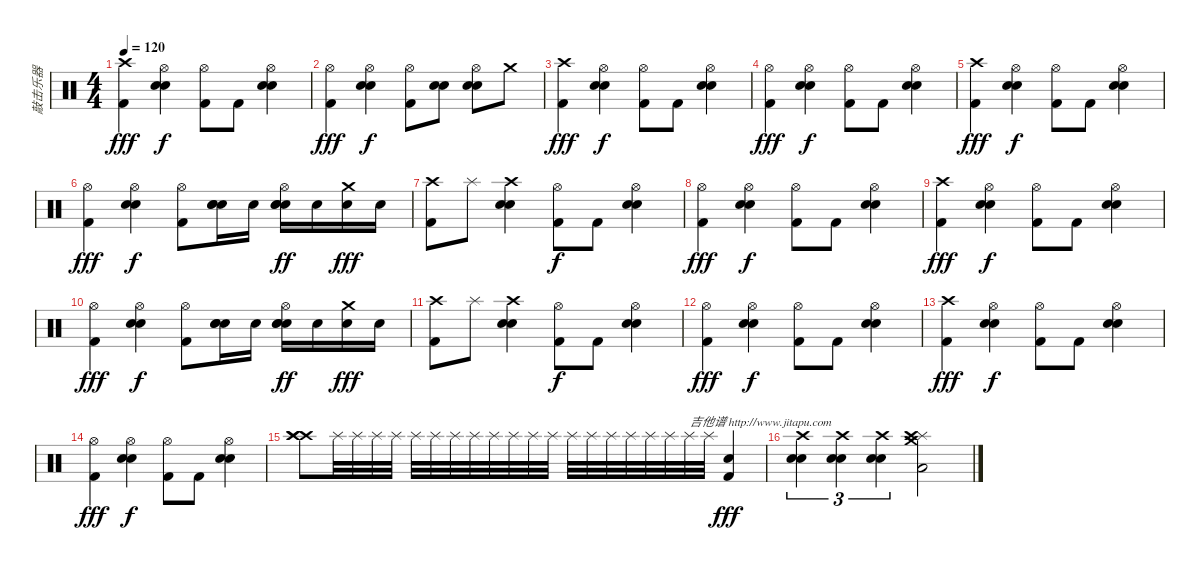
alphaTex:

\track ("敲击乐器" "敲击乐器") {instrument percussion}
\staff {score}
\articulation defaults
\ts (4 4)
\tempo 120
\clef neutral
\ks c
("Crash high (hit)" "Kick (hit) 2").4{dy fff} ("Hi-Hat (open)" "Electric Snare (hit)" "Metronome (bell)").4{dy f} ("Hi-Hat (open)" "Kick (hit) 2").8 "Kick (hit) 2".8 ("Hi-Hat (open)" "Electric Snare (hit)" "Metronome (bell)").4 |
("Hi-Hat (open)" "Kick (hit) 2").4{dy fff} ("Hi-Hat (open)" "Electric Snare (hit)" "Metronome (bell)").4{dy f} ("Hi-Hat (open)" "Kick (hit) 2").8 ("Electric Snare (hit)" "Metronome (bell)").8 ("Hi-Hat (open)" "Electric Snare (hit)" "Metronome (bell)").8 "Crash medium (hit)".8 |
("Crash high (hit)" "Kick (hit) 2").4{dy fff} ("Hi-Hat (open)" "Electric Snare (hit)" "Metronome (bell)").4{dy f} ("Hi-Hat (open)" "Kick (hit) 2").8 "Kick (hit) 2".8 ("Hi-Hat (open)" "Electric Snare (hit)" "Metronome (bell)").4 |
("Hi-Hat (open)" "Kick (hit) 2").4{dy fff} ("Hi-Hat (open)" "Electric Snare (hit)" "Metronome (bell)").4{dy f} ("Hi-Hat (open)" "Kick (hit) 2").8 "Kick (hit) 2".8 ("Hi-Hat (open)" "Electric Snare (hit)" "Metronome (bell)").4 |
("Crash high (hit)" "Kick (hit) 2").4{dy fff} ("Hi-Hat (open)" "Electric Snare (hit)" "Metronome (bell)").4{dy f} ("Hi-Hat (open)" "Kick (hit) 2").8 "Kick (hit) 2".8 ("Hi-Hat (open)" "Electric Snare (hit)" "Metronome (bell)").4 |
("Hi-Hat (open)" "Kick (hit) 2").4{dy fff} ("Hi-Hat (open)" "Electric Snare (hit)" "Metronome (bell)").4{dy f} ("Hi-Hat (open)" "Kick (hit) 2").8 ("Electric Snare (hit)" "Metronome (bell)" "Electric Snare (hit)").16 "Electric Snare (hit)".16 ("Hi-Hat (open)" "Electric Snare (hit)" "Metronome (bell)" "Electric Snare (hit)").16{dy ff} "Electric Snare (hit)".16 ("Crash medium (hit)" "Electric Snare (hit)").16{dy fff} "Electric Snare (hit)".16 |
("Crash high (hit)" "Kick (hit) 2").8 "Splash (hit)".8 ("Crash high (hit)" "Electric Snare (hit)" "Metronome (bell)").4 ("Hi-Hat (open)" "Kick (hit) 2").8{dy f} "Kick (hit) 2".8 ("Hi-Hat (open)" "Electric Snare (hit)" "Metronome (bell)").4 |
("Hi-Hat (open)" "Kick (hit) 2").4{dy fff} ("Hi-Hat (open)" "Electric Snare (hit)" "Metronome (bell)").4{dy f} ("Hi-Hat (open)" "Kick (hit) 2").8 "Kick (hit) 2".8 ("Hi-Hat (open)" "Electric Snare (hit)" "Metronome (bell)").4 |
("Crash high (hit)" "Kick (hit) 2").4{dy fff} ("Hi-Hat (open)" "Electric Snare (hit)" "Metronome (bell)").4{dy f} ("Hi-Hat (open)" "Kick (hit) 2").8 "Kick (hit) 2".8 ("Hi-Hat (open)" "Electric Snare (hit)" "Metronome (bell)").4 |
("Hi-Hat (open)" "Kick (hit) 2").4{dy fff} ("Hi-Hat (open)" "Electric Snare (hit)" "Metronome (bell)").4{dy f} ("Hi-Hat (open)" "Kick (hit) 2").8 ("Electric Snare (hit)" "Metronome (bell)" "Electric Snare (hit)").16 "Electric Snare (hit)".16 ("Hi-Hat (open)" "Electric Snare (hit)" "Metronome (bell)" "Electric Snare (hit)").16{dy ff} "Electric Snare (hit)".16 ("Crash medium (hit)" "Electric Snare (hit)").16{dy fff} "Electric Snare (hit)".16 |
("Crash high (hit)" "Kick (hit) 2").8 "Splash (hit)".8 ("Crash high (hit)" "Electric Snare (hit)" "Metronome (bell)").4 ("Hi-Hat (open)" "Kick (hit) 2").8{dy f} "Kick (hit) 2".8 ("Hi-Hat (open)" "Electric Snare (hit)" "Metronome (bell)").4 |
("Hi-Hat (open)" "Kick (hit) 2").4{dy fff} ("Hi-Hat (open)" "Electric Snare (hit)" "Metronome (bell)").4{dy f} ("Hi-Hat (open)" "Kick (hit) 2").8 "Kick (hit) 2".8 ("Hi-Hat (open)" "Electric Snare (hit)" "Metronome (bell)").4 |
("Crash high (hit)" "Kick (hit) 2").4{dy fff} ("Hi-Hat (open)" "Electric Snare (hit)" "Metronome (bell)").4{dy f} ("Hi-Hat (open)" "Kick (hit) 2").8 "Kick (hit) 2".8 ("Hi-Hat (open)" "Electric Snare (hit)" "Metronome (bell)").4 |
("Hi-Hat (open)" "Kick (hit) 2").4{dy fff} ("Hi-Hat (open)" "Electric Snare (hit)" "Metronome (bell)").4{dy f} ("Hi-Hat (open)" "Kick (hit) 2").8 "Kick (hit) 2".8 ("Hi-Hat (open)" "Electric Snare (hit)" "Metronome (bell)").4 |
("Crash high (hit)" "Crash high (hit)" "Crash high (hit)").8 "Splash (hit)".32 "Splash (hit)".32 "Splash (hit)".32 "Splash (hit)".32 "Splash (hit)".32 "Splash (hit)".32 "Splash (hit)".32 "Splash (hit)".32 "Splash (hit)".32 "Splash (hit)".32 "Splash (hit)".32 "Splash (hit)".32 "Splash (hit)".32 "Splash (hit)".32 "Splash (hit)".32 "Splash (hit)".32 "Splash (hit)".32 "Splash (hit)".32 "Splash (hit)".32{txt "吉他谱 http://www.jitapu.com"} "Splash (hit)".32 ("Kick (hit) 2" "Snare (hit) 2").4{dy fff} |
("Snare (hit) 2" "Snare (hit) 2" "Crash high (hit)").4{tu (3 2)} ("Snare (hit) 2" "Snare (hit) 2" "Crash high (hit)").4{tu (3 2)} ("Snare (hit) 2" "Snare (hit) 2" "Crash high (hit)").4{tu (3 2)} ("Low Tom (hit)" "Splash (hit)" "Crash high (hit)" "Crash medium (hit)").2
